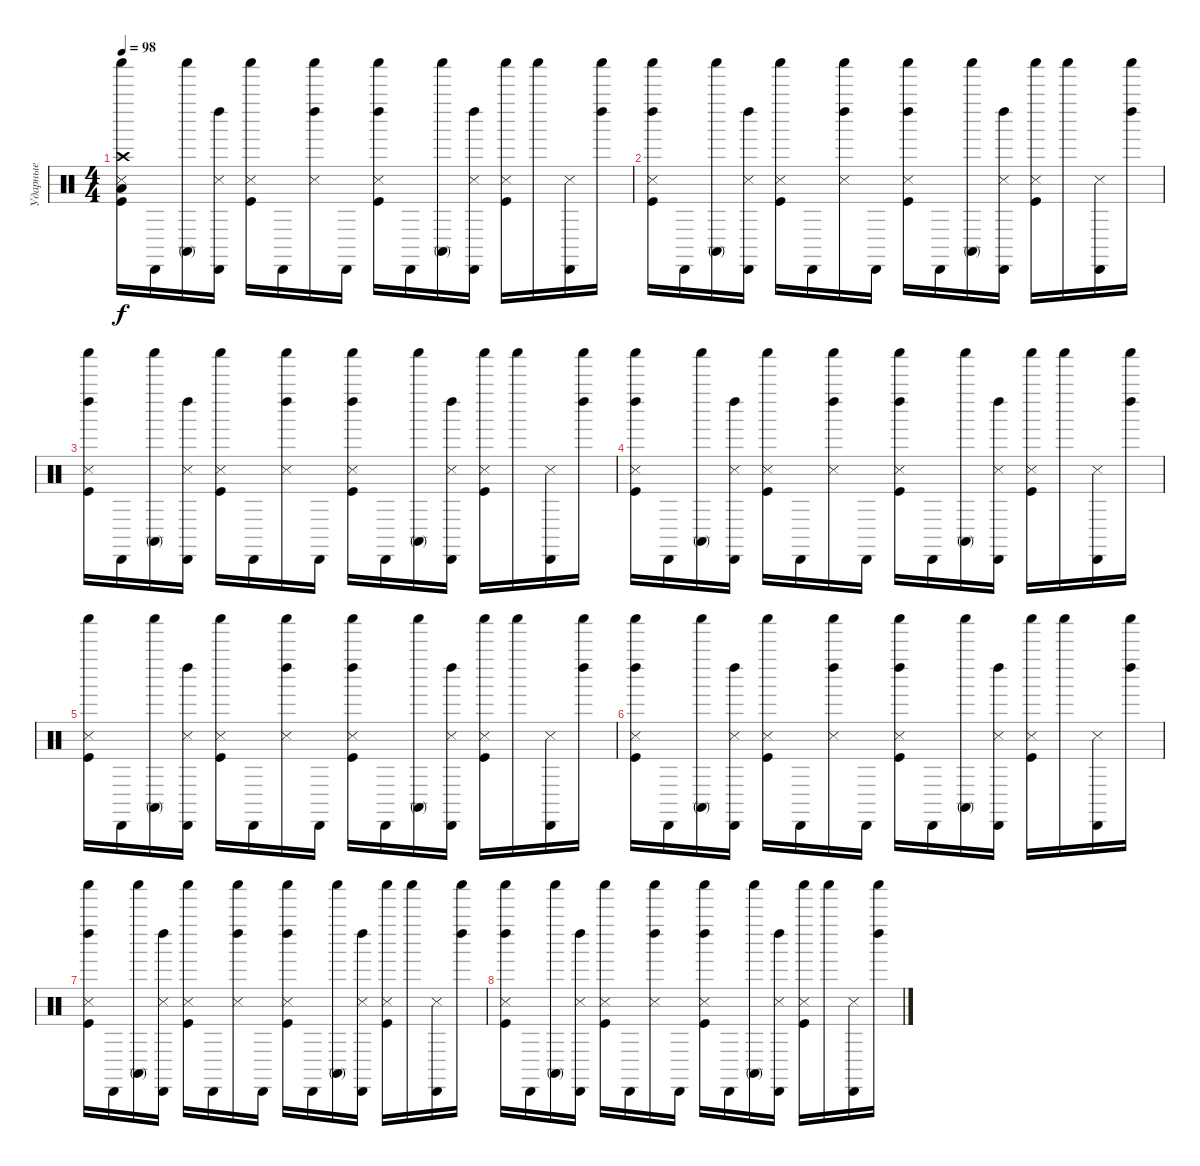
\track ("Ударные" "Ударные") {instrument percussion}
\staff {score}
\articulation defaults
\ts (4 4)
\tempo 98
\clef neutral
\ks c
("Snare (side stick) 3" "Kick (hit)" "Crash high (hit)" "Shaker (hit)" "Low Floor Tom (hit)").16{dy f} "Cabasa (hit)".16 ("Conga high (mute)" "Shaker (hit)").16 ("Snare (side stick) 3" "Left Maraca (hit)" "Cabasa (hit)").16 ("Kick (hit)" "Snare (side stick) 3" "Shaker (hit)").16 "Cabasa (hit)".16 ("Snare (side stick) 3" "Left Maraca (hit)" "Shaker (hit)").16 "Cabasa (hit)".16 ("Snare (side stick) 3" "Kick (hit)" "Left Maraca (hit)" "Shaker (hit)").16 "Cabasa (hit)".16 ("Conga high (mute)" "Shaker (hit)").16 ("Snare (side stick) 3" "Left Maraca (hit)" "Cabasa (hit)").16 ("Kick (hit)" "Snare (side stick) 3" "Shaker (hit)").16 "Shaker (hit)".16 ("Snare (side stick) 3" "Cabasa (hit)").16 ("Left Maraca (hit)" "Shaker (hit)").16 |
("Snare (side stick) 3" "Kick (hit)" "Left Maraca (hit)" "Shaker (hit)").16 "Cabasa (hit)".16 ("Conga high (mute)" "Shaker (hit)").16 ("Snare (side stick) 3" "Left Maraca (hit)" "Cabasa (hit)").16 ("Kick (hit)" "Snare (side stick) 3" "Shaker (hit)").16 "Cabasa (hit)".16 ("Snare (side stick) 3" "Left Maraca (hit)" "Shaker (hit)").16 "Cabasa (hit)".16 ("Snare (side stick) 3" "Kick (hit)" "Left Maraca (hit)" "Shaker (hit)").16 "Cabasa (hit)".16 ("Conga high (mute)" "Shaker (hit)").16 ("Snare (side stick) 3" "Left Maraca (hit)" "Cabasa (hit)").16 ("Kick (hit)" "Snare (side stick) 3" "Shaker (hit)").16 "Shaker (hit)".16 ("Snare (side stick) 3" "Cabasa (hit)").16 ("Left Maraca (hit)" "Shaker (hit)").16 |
("Snare (side stick) 3" "Kick (hit)" "Left Maraca (hit)" "Shaker (hit)").16 "Cabasa (hit)".16 ("Conga high (mute)" "Shaker (hit)").16 ("Snare (side stick) 3" "Left Maraca (hit)" "Cabasa (hit)").16 ("Kick (hit)" "Snare (side stick) 3" "Shaker (hit)").16 "Cabasa (hit)".16 ("Snare (side stick) 3" "Left Maraca (hit)" "Shaker (hit)").16 "Cabasa (hit)".16 ("Snare (side stick) 3" "Kick (hit)" "Left Maraca (hit)" "Shaker (hit)").16 "Cabasa (hit)".16 ("Conga high (mute)" "Shaker (hit)").16 ("Snare (side stick) 3" "Left Maraca (hit)" "Cabasa (hit)").16 ("Kick (hit)" "Snare (side stick) 3" "Shaker (hit)").16 "Shaker (hit)".16 ("Snare (side stick) 3" "Cabasa (hit)").16 ("Left Maraca (hit)" "Shaker (hit)").16 |
("Snare (side stick) 3" "Kick (hit)" "Left Maraca (hit)" "Shaker (hit)").16 "Cabasa (hit)".16 ("Conga high (mute)" "Shaker (hit)").16 ("Snare (side stick) 3" "Left Maraca (hit)" "Cabasa (hit)").16 ("Kick (hit)" "Snare (side stick) 3" "Shaker (hit)").16 "Cabasa (hit)".16 ("Snare (side stick) 3" "Left Maraca (hit)" "Shaker (hit)").16 "Cabasa (hit)".16 ("Snare (side stick) 3" "Kick (hit)" "Left Maraca (hit)" "Shaker (hit)").16 "Cabasa (hit)".16 ("Conga high (mute)" "Shaker (hit)").16 ("Snare (side stick) 3" "Left Maraca (hit)" "Cabasa (hit)").16 ("Kick (hit)" "Snare (side stick) 3" "Shaker (hit)").16 "Shaker (hit)".16 ("Snare (side stick) 3" "Cabasa (hit)").16 ("Left Maraca (hit)" "Shaker (hit)").16 |
("Snare (side stick) 3" "Kick (hit)" "Shaker (hit)").16 "Cabasa (hit)".16 ("Conga high (mute)" "Shaker (hit)").16 ("Snare (side stick) 3" "Left Maraca (hit)" "Cabasa (hit)").16 ("Kick (hit)" "Snare (side stick) 3" "Shaker (hit)").16 "Cabasa (hit)".16 ("Snare (side stick) 3" "Left Maraca (hit)" "Shaker (hit)").16 "Cabasa (hit)".16 ("Snare (side stick) 3" "Kick (hit)" "Left Maraca (hit)" "Shaker (hit)").16 "Cabasa (hit)".16 ("Conga high (mute)" "Shaker (hit)").16 ("Snare (side stick) 3" "Left Maraca (hit)" "Cabasa (hit)").16 ("Kick (hit)" "Snare (side stick) 3" "Shaker (hit)").16 "Shaker (hit)".16 ("Snare (side stick) 3" "Cabasa (hit)").16 ("Left Maraca (hit)" "Shaker (hit)").16 |
("Snare (side stick) 3" "Kick (hit)" "Left Maraca (hit)" "Shaker (hit)").16 "Cabasa (hit)".16 ("Conga high (mute)" "Shaker (hit)").16 ("Snare (side stick) 3" "Left Maraca (hit)" "Cabasa (hit)").16 ("Kick (hit)" "Snare (side stick) 3" "Shaker (hit)").16 "Cabasa (hit)".16 ("Snare (side stick) 3" "Left Maraca (hit)" "Shaker (hit)").16 "Cabasa (hit)".16 ("Snare (side stick) 3" "Kick (hit)" "Left Maraca (hit)" "Shaker (hit)").16 "Cabasa (hit)".16 ("Conga high (mute)" "Shaker (hit)").16 ("Snare (side stick) 3" "Left Maraca (hit)" "Cabasa (hit)").16 ("Kick (hit)" "Snare (side stick) 3" "Shaker (hit)").16 "Shaker (hit)".16 ("Snare (side stick) 3" "Cabasa (hit)").16 ("Left Maraca (hit)" "Shaker (hit)").16 |
("Snare (side stick) 3" "Kick (hit)" "Left Maraca (hit)" "Shaker (hit)").16 "Cabasa (hit)".16 ("Conga high (mute)" "Shaker (hit)").16 ("Snare (side stick) 3" "Left Maraca (hit)" "Cabasa (hit)").16 ("Kick (hit)" "Snare (side stick) 3" "Shaker (hit)").16 "Cabasa (hit)".16 ("Snare (side stick) 3" "Left Maraca (hit)" "Shaker (hit)").16 "Cabasa (hit)".16 ("Snare (side stick) 3" "Kick (hit)" "Left Maraca (hit)" "Shaker (hit)").16 "Cabasa (hit)".16 ("Conga high (mute)" "Shaker (hit)").16 ("Snare (side stick) 3" "Left Maraca (hit)" "Cabasa (hit)").16 ("Kick (hit)" "Snare (side stick) 3" "Shaker (hit)").16 "Shaker (hit)".16 ("Snare (side stick) 3" "Cabasa (hit)").16 ("Left Maraca (hit)" "Shaker (hit)").16 |
("Snare (side stick) 3" "Kick (hit)" "Left Maraca (hit)" "Shaker (hit)").16 "Cabasa (hit)".16 ("Conga high (mute)" "Shaker (hit)").16 ("Snare (side stick) 3" "Left Maraca (hit)" "Cabasa (hit)").16 ("Kick (hit)" "Snare (side stick) 3" "Shaker (hit)").16 "Cabasa (hit)".16 ("Snare (side stick) 3" "Left Maraca (hit)" "Shaker (hit)").16 "Cabasa (hit)".16 ("Snare (side stick) 3" "Kick (hit)" "Left Maraca (hit)" "Shaker (hit)").16 "Cabasa (hit)".16 ("Conga high (mute)" "Shaker (hit)").16 ("Snare (side stick) 3" "Left Maraca (hit)" "Cabasa (hit)").16 ("Kick (hit)" "Snare (side stick) 3" "Shaker (hit)").16 "Shaker (hit)".16 ("Snare (side stick) 3" "Cabasa (hit)").16 ("Left Maraca (hit)" "Shaker (hit)").16
